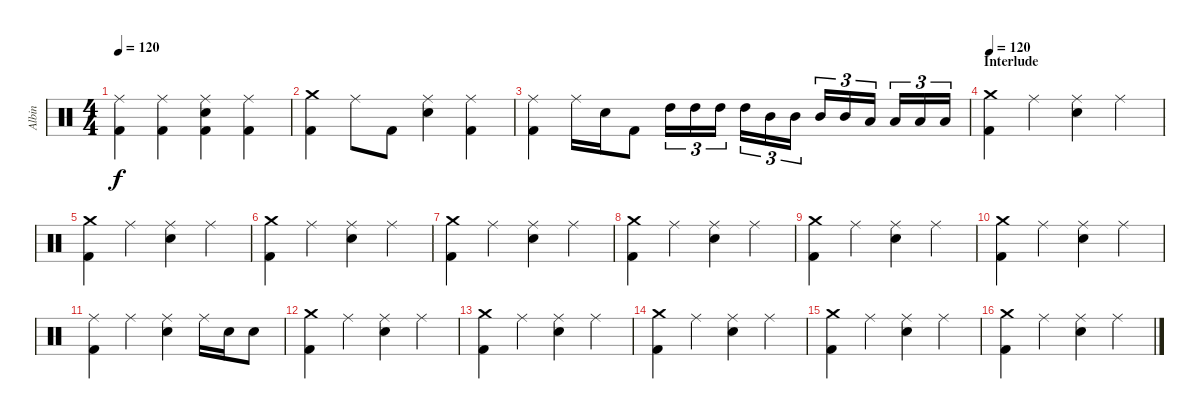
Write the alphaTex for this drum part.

\track ("Albin" "Albin") {instrument percussion}
\staff {score}
\articulation defaults
\ts (4 4)
\tempo 120
\clef neutral
\ks c
("Ride (middle)" "Kick (hit) 2").4{dy f} ("Ride (middle)" "Kick (hit) 2").4 ("Ride (middle)" "Electric Snare (hit)" "Kick (hit) 2").4 ("Ride (middle)" "Kick (hit) 2").4 |
("Crash medium (hit)" "Kick (hit) 2").4 "Ride (middle)".8 "Kick (hit) 2".8 ("Ride (middle)" "Electric Snare (hit)").4 ("Ride (middle)" "Kick (hit) 2").4 |
("Ride (middle)" "Kick (hit) 2").4 "Ride (middle)".16 "Electric Snare (hit)".16 "Kick (hit) 2".8 "High Tom (hit)".16{tu (3 2)} "High Tom (hit)".16{tu (3 2)} "High Tom (hit)".16{tu (3 2)} "High Tom (hit)".16{tu (3 2)} "Mid Tom (hit)".16{tu (3 2)} "Mid Tom (hit)".16{tu (3 2)} "Mid Tom (hit)".16{tu (3 2)} "Mid Tom (hit)".16{tu (3 2)} "Low Tom (hit)".16{tu (3 2)} "Low Tom (hit)".16{tu (3 2)} "Low Tom (hit)".16{tu (3 2)} "Low Tom (hit)".16{tu (3 2)} |
\section ("" "Interlude")
\tempo 120
("Crash medium (hit)" "Kick (hit) 2").4 "Ride (middle)".4 ("Ride (middle)" "Electric Snare (hit)").4 "Ride (middle)".4 |
("Crash medium (hit)" "Kick (hit) 2").4 "Ride (middle)".4 ("Ride (middle)" "Electric Snare (hit)").4 "Ride (middle)".4 |
("Crash medium (hit)" "Kick (hit) 2").4 "Ride (middle)".4 ("Ride (middle)" "Electric Snare (hit)").4 "Ride (middle)".4 |
("Crash medium (hit)" "Kick (hit) 2").4 "Ride (middle)".4 ("Ride (middle)" "Electric Snare (hit)").4 "Ride (middle)".4 |
("Crash medium (hit)" "Kick (hit) 2").4 "Ride (middle)".4 ("Ride (middle)" "Electric Snare (hit)").4 "Ride (middle)".4 |
("Crash medium (hit)" "Kick (hit) 2").4 "Ride (middle)".4 ("Ride (middle)" "Electric Snare (hit)").4 "Ride (middle)".4 |
("Crash medium (hit)" "Kick (hit) 2").4 "Ride (middle)".4 ("Ride (middle)" "Electric Snare (hit)").4 "Ride (middle)".4 |
("Ride (middle)" "Kick (hit) 2").4 "Ride (middle)".4 ("Ride (middle)" "Electric Snare (hit)").4 "Ride (middle)".16 "Electric Snare (hit)".16 "Electric Snare (hit)".8 |
("Crash medium (hit)" "Kick (hit) 2").4 "Ride (middle)".4 ("Ride (middle)" "Electric Snare (hit)").4 "Ride (middle)".4 |
("Crash medium (hit)" "Kick (hit) 2").4 "Ride (middle)".4 ("Ride (middle)" "Electric Snare (hit)").4 "Ride (middle)".4 |
("Crash medium (hit)" "Kick (hit) 2").4 "Ride (middle)".4 ("Ride (middle)" "Electric Snare (hit)").4 "Ride (middle)".4 |
("Crash medium (hit)" "Kick (hit) 2").4 "Ride (middle)".4 ("Ride (middle)" "Electric Snare (hit)").4 "Ride (middle)".4 |
("Crash medium (hit)" "Kick (hit) 2").4 "Ride (middle)".4 ("Ride (middle)" "Electric Snare (hit)").4 "Ride (middle)".4
